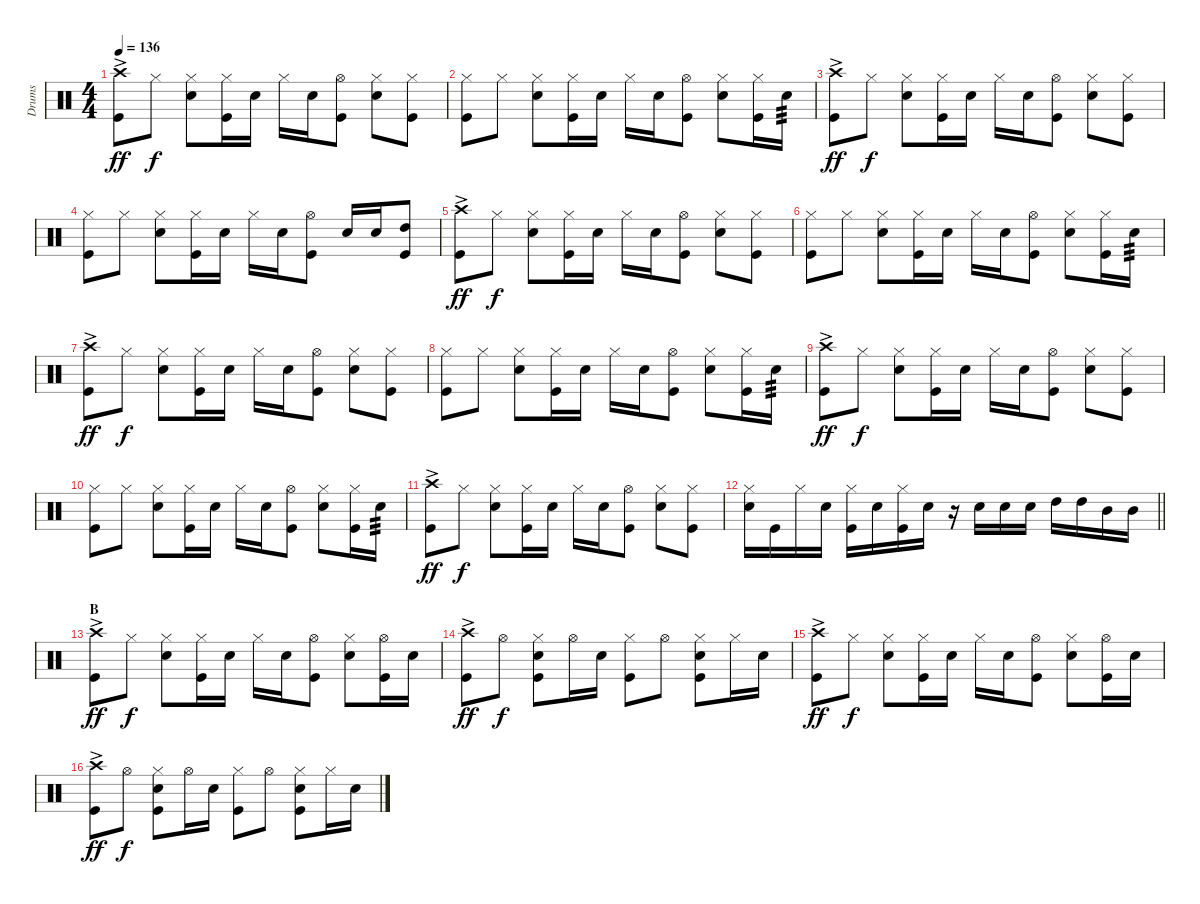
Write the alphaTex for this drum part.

\track ("Drums" "Drums") {instrument percussion}
\staff {score}
\articulation defaults
\ts (4 4)
\tempo 136
\clef neutral
\ks c
("Crash high (hit)"{ac} "Kick (hit)").8{dy ff} "Hi-Hat (closed)".8{dy f} ("Hi-Hat (closed)" "Snare (hit) 2").8 ("Hi-Hat (closed)" "Kick (hit)").16 "Snare (hit) 2".16 "Hi-Hat (closed)".16 "Snare (hit) 2".16 ("Hi-Hat (open)" "Kick (hit)").8 ("Hi-Hat (closed)" "Snare (hit) 2").8 ("Hi-Hat (closed)" "Kick (hit)").8 |
("Hi-Hat (closed)" "Kick (hit)").8 "Hi-Hat (closed)".8 ("Hi-Hat (closed)" "Snare (hit) 2").8 ("Hi-Hat (closed)" "Kick (hit)").16 "Snare (hit) 2".16 "Hi-Hat (closed)".16 "Snare (hit) 2".16 ("Hi-Hat (open)" "Kick (hit)").8 ("Hi-Hat (closed)" "Snare (hit) 2").8 ("Hi-Hat (closed)" "Kick (hit)").16 "Snare (hit) 2".16{tp 3} |
("Crash high (hit)"{ac} "Kick (hit)").8{dy ff} "Hi-Hat (closed)".8{dy f} ("Hi-Hat (closed)" "Snare (hit) 2").8 ("Hi-Hat (closed)" "Kick (hit)").16 "Snare (hit) 2".16 "Hi-Hat (closed)".16 "Snare (hit) 2".16 ("Hi-Hat (open)" "Kick (hit)").8 ("Hi-Hat (closed)" "Snare (hit) 2").8 ("Hi-Hat (closed)" "Kick (hit)").8 |
("Hi-Hat (closed)" "Kick (hit)").8 "Hi-Hat (closed)".8 ("Hi-Hat (closed)" "Snare (hit) 2").8 ("Hi-Hat (closed)" "Kick (hit)").16 "Snare (hit) 2".16 "Hi-Hat (closed)".16 "Snare (hit) 2".16 ("Hi-Hat (open)" "Kick (hit)").8 "Snare (hit) 2".16 "Snare (hit) 2".16 ("High Tom (hit)" "Kick (hit)").8 |
("Crash high (hit)"{ac} "Kick (hit)").8{dy ff} "Hi-Hat (closed)".8{dy f} ("Hi-Hat (closed)" "Snare (hit) 2").8 ("Hi-Hat (closed)" "Kick (hit)").16 "Snare (hit) 2".16 "Hi-Hat (closed)".16 "Snare (hit) 2".16 ("Hi-Hat (open)" "Kick (hit)").8 ("Hi-Hat (closed)" "Snare (hit) 2").8 ("Hi-Hat (closed)" "Kick (hit)").8 |
("Hi-Hat (closed)" "Kick (hit)").8 "Hi-Hat (closed)".8 ("Hi-Hat (closed)" "Snare (hit) 2").8 ("Hi-Hat (closed)" "Kick (hit)").16 "Snare (hit) 2".16 "Hi-Hat (closed)".16 "Snare (hit) 2".16 ("Hi-Hat (open)" "Kick (hit)").8 ("Hi-Hat (closed)" "Snare (hit) 2").8 ("Hi-Hat (closed)" "Kick (hit)").16 "Snare (hit) 2".16{tp 3} |
("Crash high (hit)"{ac} "Kick (hit)").8{dy ff} "Hi-Hat (closed)".8{dy f} ("Hi-Hat (closed)" "Snare (hit) 2").8 ("Hi-Hat (closed)" "Kick (hit)").16 "Snare (hit) 2".16 "Hi-Hat (closed)".16 "Snare (hit) 2".16 ("Hi-Hat (open)" "Kick (hit)").8 ("Hi-Hat (closed)" "Snare (hit) 2").8 ("Hi-Hat (closed)" "Kick (hit)").8 |
("Hi-Hat (closed)" "Kick (hit)").8 "Hi-Hat (closed)".8 ("Hi-Hat (closed)" "Snare (hit) 2").8 ("Hi-Hat (closed)" "Kick (hit)").16 "Snare (hit) 2".16 "Hi-Hat (closed)".16 "Snare (hit) 2".16 ("Hi-Hat (open)" "Kick (hit)").8 ("Hi-Hat (closed)" "Snare (hit) 2").8 ("Hi-Hat (closed)" "Kick (hit)").16 "Snare (hit) 2".16{tp 3} |
("Crash high (hit)"{ac} "Kick (hit)").8{dy ff} "Hi-Hat (closed)".8{dy f} ("Hi-Hat (closed)" "Snare (hit) 2").8 ("Hi-Hat (closed)" "Kick (hit)").16 "Snare (hit) 2".16 "Hi-Hat (closed)".16 "Snare (hit) 2".16 ("Hi-Hat (open)" "Kick (hit)").8 ("Hi-Hat (closed)" "Snare (hit) 2").8 ("Hi-Hat (closed)" "Kick (hit)").8 |
("Hi-Hat (closed)" "Kick (hit)").8 "Hi-Hat (closed)".8 ("Hi-Hat (closed)" "Snare (hit) 2").8 ("Hi-Hat (closed)" "Kick (hit)").16 "Snare (hit) 2".16 "Hi-Hat (closed)".16 "Snare (hit) 2".16 ("Hi-Hat (open)" "Kick (hit)").8 ("Hi-Hat (closed)" "Snare (hit) 2").8 ("Hi-Hat (closed)" "Kick (hit)").16 "Snare (hit) 2".16{tp 3} |
("Crash high (hit)"{ac} "Kick (hit)").8{dy ff} "Hi-Hat (closed)".8{dy f} ("Hi-Hat (closed)" "Snare (hit) 2").8 ("Hi-Hat (closed)" "Kick (hit)").16 "Snare (hit) 2".16 "Hi-Hat (closed)".16 "Snare (hit) 2".16 ("Hi-Hat (open)" "Kick (hit)").8 ("Hi-Hat (closed)" "Snare (hit) 2").8 ("Hi-Hat (closed)" "Kick (hit)").8 |
\barLineRight lightlight
("Hi-Hat (closed)" "Snare (hit) 2").16 "Kick (hit)".16 "Hi-Hat (closed)".16 "Snare (hit) 2".16 ("Hi-Hat (closed)" "Kick (hit)").16 "Snare (hit) 2".16 ("Hi-Hat (closed)" "Kick (hit)").16 "Snare (hit) 2".16 r.16 "Snare (hit) 2".16 "Snare (hit) 2".16 "Snare (hit) 2".16 "High Tom (hit)".16 "High Tom (hit)".16 "Mid Tom (hit)".16 "Mid Tom (hit)".16 |
\section ("" "B")
("Crash high (hit)"{ac} "Kick (hit)").8{dy ff} "Hi-Hat (closed)".8{dy f} ("Hi-Hat (closed)" "Snare (hit) 2").8 ("Hi-Hat (closed)" "Kick (hit)").16 "Snare (hit) 2".16 "Hi-Hat (closed)".16 "Snare (hit) 2".16 ("Hi-Hat (open)" "Kick (hit)").8 ("Hi-Hat (closed)" "Snare (hit) 2").8 ("Hi-Hat (open)" "Kick (hit)").16 "Snare (hit) 2".16 |
("Crash high (hit)"{ac} "Kick (hit)").8{dy ff} "Hi-Hat (open)".8{dy f} ("Hi-Hat (closed)" "Snare (hit) 2" "Kick (hit)").8 "Hi-Hat (open)".16 "Snare (hit) 2".16 ("Hi-Hat (closed)" "Kick (hit)").8 "Hi-Hat (open)".8 ("Hi-Hat (closed)" "Snare (hit) 2" "Kick (hit)").8 "Hi-Hat (closed)".16 "Snare (hit) 2".16 |
("Crash high (hit)"{ac} "Kick (hit)").8{dy ff} "Hi-Hat (closed)".8{dy f} ("Hi-Hat (closed)" "Snare (hit) 2").8 ("Hi-Hat (closed)" "Kick (hit)").16 "Snare (hit) 2".16 "Hi-Hat (closed)".16 "Snare (hit) 2".16 ("Hi-Hat (open)" "Kick (hit)").8 ("Hi-Hat (closed)" "Snare (hit) 2").8 ("Hi-Hat (open)" "Kick (hit)").16 "Snare (hit) 2".16 |
("Crash high (hit)"{ac} "Kick (hit)").8{dy ff} "Hi-Hat (open)".8{dy f} ("Hi-Hat (closed)" "Snare (hit) 2" "Kick (hit)").8 "Hi-Hat (open)".16 "Snare (hit) 2".16 ("Hi-Hat (closed)" "Kick (hit)").8 "Hi-Hat (open)".8 ("Hi-Hat (closed)" "Snare (hit) 2" "Kick (hit)").8 "Hi-Hat (closed)".16 "Snare (hit) 2".16
